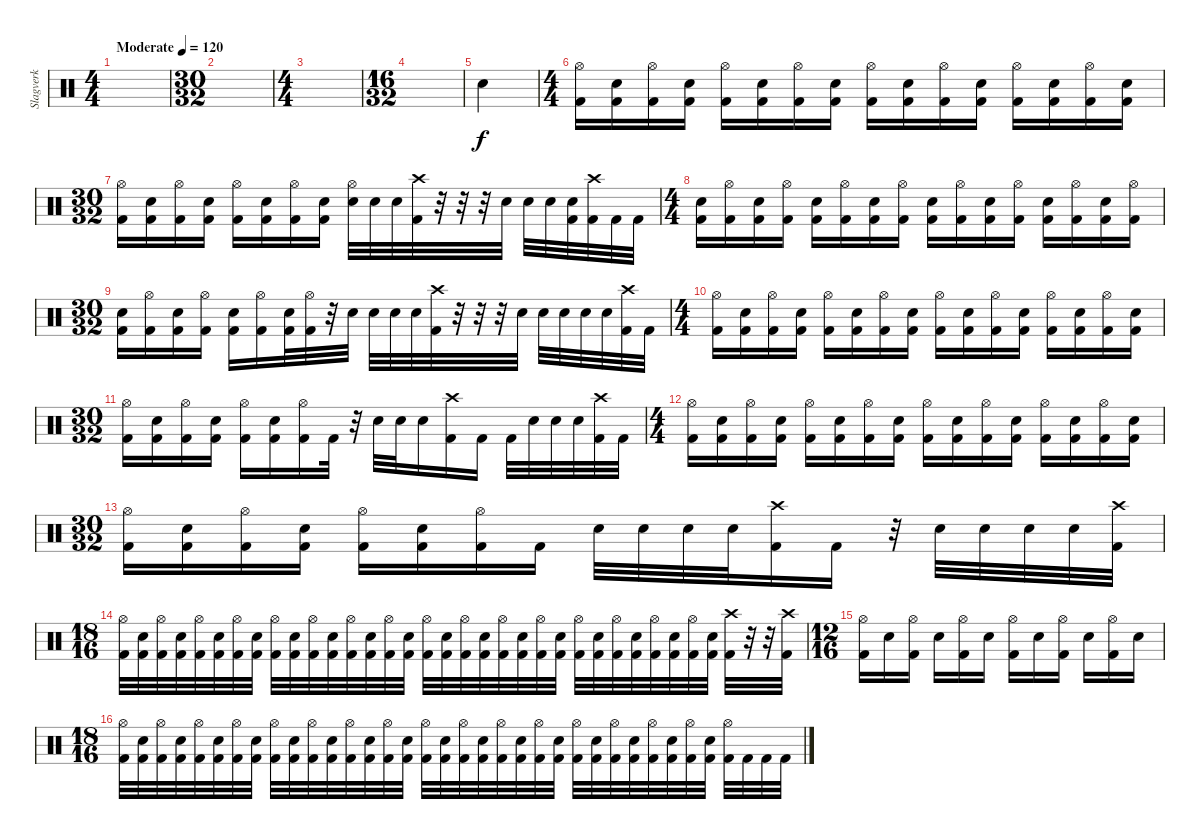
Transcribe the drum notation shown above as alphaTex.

\track ("Slagverk" "Slagverk") {instrument percussion}
\staff {score}
\articulation defaults
\ts (4 4)
\tempo (120 "Moderate")
\clef neutral
\ks c
|
\ts (30 32)
|
\ts (4 4)
|
\ts (16 32)
|
"Electric Snare (hit)".4 |
\ts (4 4)
("Hi-Hat (open)" "Kick (hit) 2").16 ("Electric Snare (hit)" "Kick (hit) 2").16 ("Hi-Hat (open)" "Kick (hit) 2").16 ("Electric Snare (hit)" "Kick (hit) 2").16 ("Hi-Hat (open)" "Kick (hit) 2").16 ("Electric Snare (hit)" "Kick (hit) 2").16 ("Hi-Hat (open)" "Kick (hit) 2").16 ("Electric Snare (hit)" "Kick (hit) 2").16 ("Hi-Hat (open)" "Kick (hit) 2").16 ("Electric Snare (hit)" "Kick (hit) 2").16 ("Hi-Hat (open)" "Kick (hit) 2").16 ("Electric Snare (hit)" "Kick (hit) 2").16 ("Hi-Hat (open)" "Kick (hit) 2").16 ("Electric Snare (hit)" "Kick (hit) 2").16 ("Hi-Hat (open)" "Kick (hit) 2").16 ("Electric Snare (hit)" "Kick (hit) 2").16 |
\ts (30 32)
("Hi-Hat (open)" "Kick (hit) 2").16 ("Electric Snare (hit)" "Kick (hit) 2").16 ("Hi-Hat (open)" "Kick (hit) 2").16 ("Electric Snare (hit)" "Kick (hit) 2").16 ("Hi-Hat (open)" "Kick (hit) 2").16 ("Electric Snare (hit)" "Kick (hit) 2").16 ("Hi-Hat (open)" "Kick (hit) 2").16 ("Electric Snare (hit)" "Kick (hit) 2").16 ("Hi-Hat (open)" "Electric Snare (hit)").32 "Electric Snare (hit)".32 "Electric Snare (hit)".32 ("Crash high (hit)" "Kick (hit) 2").32 r.32 r.32 r.32 "Electric Snare (hit)".32 "Electric Snare (hit)".32 "Electric Snare (hit)".32 ("Electric Snare (hit)" "Kick (hit) 2").32 ("Crash high (hit)" "Kick (hit) 2").32 "Kick (hit) 2".32 "Kick (hit) 2".32 |
\ts (4 4)
("Electric Snare (hit)" "Kick (hit) 2").16 ("Hi-Hat (open)" "Kick (hit) 2").16 ("Electric Snare (hit)" "Kick (hit) 2").16 ("Hi-Hat (open)" "Kick (hit) 2").16 ("Electric Snare (hit)" "Kick (hit) 2").16 ("Hi-Hat (open)" "Kick (hit) 2").16 ("Electric Snare (hit)" "Kick (hit) 2").16 ("Hi-Hat (open)" "Kick (hit) 2").16 ("Electric Snare (hit)" "Kick (hit) 2").16 ("Hi-Hat (open)" "Kick (hit) 2").16 ("Electric Snare (hit)" "Kick (hit) 2").16 ("Hi-Hat (open)" "Kick (hit) 2").16 ("Electric Snare (hit)" "Kick (hit) 2").16 ("Hi-Hat (open)" "Kick (hit) 2").16 ("Electric Snare (hit)" "Kick (hit) 2").16 ("Hi-Hat (open)" "Kick (hit) 2").16 |
\ts (30 32)
("Electric Snare (hit)" "Kick (hit) 2").16 ("Hi-Hat (open)" "Kick (hit) 2").16 ("Electric Snare (hit)" "Kick (hit) 2").16 ("Hi-Hat (open)" "Kick (hit) 2").16 ("Electric Snare (hit)" "Kick (hit) 2").16 ("Hi-Hat (open)" "Kick (hit) 2").16 ("Electric Snare (hit)" "Kick (hit) 2").32 ("Hi-Hat (open)" "Kick (hit) 2").32 r.32 "Electric Snare (hit)".32 "Electric Snare (hit)".32 "Electric Snare (hit)".32 "Electric Snare (hit)".32 ("Crash high (hit)" "Kick (hit) 2").32 r.32 r.32 r.32 "Electric Snare (hit)".32 "Electric Snare (hit)".32 "Electric Snare (hit)".32 "Electric Snare (hit)".32 "Electric Snare (hit)".32 ("Crash high (hit)" "Kick (hit) 2").32 "Kick (hit) 2".32 |
\ts (4 4)
("Hi-Hat (open)" "Kick (hit) 2").16 ("Electric Snare (hit)" "Kick (hit) 2").16 ("Hi-Hat (open)" "Kick (hit) 2").16 ("Electric Snare (hit)" "Kick (hit) 2").16 ("Hi-Hat (open)" "Kick (hit) 2").16 ("Electric Snare (hit)" "Kick (hit) 2").16 ("Hi-Hat (open)" "Kick (hit) 2").16 ("Electric Snare (hit)" "Kick (hit) 2").16 ("Hi-Hat (open)" "Kick (hit) 2").16 ("Electric Snare (hit)" "Kick (hit) 2").16 ("Hi-Hat (open)" "Kick (hit) 2").16 ("Electric Snare (hit)" "Kick (hit) 2").16 ("Hi-Hat (open)" "Kick (hit) 2").16 ("Electric Snare (hit)" "Kick (hit) 2").16 ("Hi-Hat (open)" "Kick (hit) 2").16 ("Electric Snare (hit)" "Kick (hit) 2").16 |
\ts (30 32)
("Hi-Hat (open)" "Kick (hit) 2").16 ("Electric Snare (hit)" "Kick (hit) 2").16 ("Hi-Hat (open)" "Kick (hit) 2").16 ("Electric Snare (hit)" "Kick (hit) 2").16 ("Hi-Hat (open)" "Kick (hit) 2").16 ("Electric Snare (hit)" "Kick (hit) 2").16 ("Hi-Hat (open)" "Kick (hit) 2").16 "Kick (hit) 2".32 r.32 "Electric Snare (hit)".32 "Electric Snare (hit)".32 "Electric Snare (hit)".16 ("Crash high (hit)" "Kick (hit) 2").16 "Kick (hit) 2".16 "Kick (hit) 2".32 "Electric Snare (hit)".32 "Electric Snare (hit)".32 "Electric Snare (hit)".32 ("Crash high (hit)" "Kick (hit) 2").32 "Kick (hit) 2".32 |
\ts (4 4)
("Hi-Hat (open)" "Kick (hit) 2").16 ("Electric Snare (hit)" "Kick (hit) 2").16 ("Hi-Hat (open)" "Kick (hit) 2").16 ("Electric Snare (hit)" "Kick (hit) 2").16 ("Hi-Hat (open)" "Kick (hit) 2").16 ("Electric Snare (hit)" "Kick (hit) 2").16 ("Hi-Hat (open)" "Kick (hit) 2").16 ("Electric Snare (hit)" "Kick (hit) 2").16 ("Hi-Hat (open)" "Kick (hit) 2").16 ("Electric Snare (hit)" "Kick (hit) 2").16 ("Hi-Hat (open)" "Kick (hit) 2").16 ("Electric Snare (hit)" "Kick (hit) 2").16 ("Hi-Hat (open)" "Kick (hit) 2").16 ("Electric Snare (hit)" "Kick (hit) 2").16 ("Hi-Hat (open)" "Kick (hit) 2").16 ("Electric Snare (hit)" "Kick (hit) 2").16 |
\ts (30 32)
("Hi-Hat (open)" "Kick (hit) 2").16 ("Electric Snare (hit)" "Kick (hit) 2").16 ("Hi-Hat (open)" "Kick (hit) 2").16 ("Electric Snare (hit)" "Kick (hit) 2").16 ("Hi-Hat (open)" "Kick (hit) 2").16 ("Electric Snare (hit)" "Kick (hit) 2").16 ("Hi-Hat (open)" "Kick (hit) 2").16 "Kick (hit) 2".16 "Electric Snare (hit)".32 "Electric Snare (hit)".32 "Electric Snare (hit)".32 "Electric Snare (hit)".32 ("Crash high (hit)" "Kick (hit) 2").16 "Kick (hit) 2".16 r.32 "Electric Snare (hit)".32 "Electric Snare (hit)".32 "Electric Snare (hit)".32 "Electric Snare (hit)".32 ("Crash high (hit)" "Kick (hit) 2").32 |
\ts (18 16)
("Hi-Hat (open)" "Kick (hit) 2").32 ("Electric Snare (hit)" "Kick (hit) 2").32 ("Hi-Hat (open)" "Kick (hit) 2").32 ("Electric Snare (hit)" "Kick (hit) 2").32 ("Hi-Hat (open)" "Kick (hit) 2").32 ("Electric Snare (hit)" "Kick (hit) 2").32 ("Hi-Hat (open)" "Kick (hit) 2").32 ("Electric Snare (hit)" "Kick (hit) 2").32 ("Hi-Hat (open)" "Kick (hit) 2").32 ("Electric Snare (hit)" "Kick (hit) 2").32 ("Hi-Hat (open)" "Kick (hit) 2").32 ("Electric Snare (hit)" "Kick (hit) 2").32 ("Hi-Hat (open)" "Kick (hit) 2").32 ("Electric Snare (hit)" "Kick (hit) 2").32 ("Hi-Hat (open)" "Kick (hit) 2").32 ("Electric Snare (hit)" "Kick (hit) 2").32 ("Hi-Hat (open)" "Kick (hit) 2").32 ("Electric Snare (hit)" "Kick (hit) 2").32 ("Hi-Hat (open)" "Kick (hit) 2").32 ("Electric Snare (hit)" "Kick (hit) 2").32 ("Hi-Hat (open)" "Kick (hit) 2").32 ("Electric Snare (hit)" "Kick (hit) 2").32 ("Hi-Hat (open)" "Kick (hit) 2").32 ("Electric Snare (hit)" "Kick (hit) 2").32 ("Hi-Hat (open)" "Kick (hit) 2").32 ("Electric Snare (hit)" "Kick (hit) 2").32 ("Hi-Hat (open)" "Kick (hit) 2").32 ("Electric Snare (hit)" "Kick (hit) 2").32 ("Hi-Hat (open)" "Kick (hit) 2").32 ("Electric Snare (hit)" "Kick (hit) 2").32 ("Hi-Hat (open)" "Kick (hit) 2").32 ("Electric Snare (hit)" "Kick (hit) 2").32 ("Crash high (hit)" "Kick (hit) 2").32 r.32 r.32 ("Crash high (hit)" "Kick (hit) 2").32 |
\ts (12 16)
("Hi-Hat (open)" "Kick (hit) 2").16 "Electric Snare (hit)".16 ("Hi-Hat (open)" "Kick (hit) 2").16 "Electric Snare (hit)".16 ("Hi-Hat (open)" "Kick (hit) 2").16 "Electric Snare (hit)".16 ("Hi-Hat (open)" "Kick (hit) 2").16 "Electric Snare (hit)".16 ("Hi-Hat (open)" "Kick (hit) 2").16 "Electric Snare (hit)".16 ("Hi-Hat (open)" "Kick (hit) 2").16 "Electric Snare (hit)".16 |
\ts (18 16)
("Hi-Hat (open)" "Kick (hit) 2").32 ("Electric Snare (hit)" "Kick (hit) 2").32 ("Hi-Hat (open)" "Kick (hit) 2").32 ("Electric Snare (hit)" "Kick (hit) 2").32 ("Hi-Hat (open)" "Kick (hit) 2").32 ("Electric Snare (hit)" "Kick (hit) 2").32 ("Hi-Hat (open)" "Kick (hit) 2").32 ("Electric Snare (hit)" "Kick (hit) 2").32 ("Hi-Hat (open)" "Kick (hit) 2").32 ("Electric Snare (hit)" "Kick (hit) 2").32 ("Hi-Hat (open)" "Kick (hit) 2").32 ("Electric Snare (hit)" "Kick (hit) 2").32 ("Hi-Hat (open)" "Kick (hit) 2").32 ("Electric Snare (hit)" "Kick (hit) 2").32 ("Hi-Hat (open)" "Kick (hit) 2").32 ("Electric Snare (hit)" "Kick (hit) 2").32 ("Hi-Hat (open)" "Kick (hit) 2").32 ("Electric Snare (hit)" "Kick (hit) 2").32 ("Hi-Hat (open)" "Kick (hit) 2").32 ("Electric Snare (hit)" "Kick (hit) 2").32 ("Hi-Hat (open)" "Kick (hit) 2").32 ("Electric Snare (hit)" "Kick (hit) 2").32 ("Hi-Hat (open)" "Kick (hit) 2").32 ("Electric Snare (hit)" "Kick (hit) 2").32 ("Hi-Hat (open)" "Kick (hit) 2").32 ("Electric Snare (hit)" "Kick (hit) 2").32 ("Hi-Hat (open)" "Kick (hit) 2").32 ("Electric Snare (hit)" "Kick (hit) 2").32 ("Hi-Hat (open)" "Kick (hit) 2").32 ("Electric Snare (hit)" "Kick (hit) 2").32 ("Hi-Hat (open)" "Kick (hit) 2").32 ("Electric Snare (hit)" "Kick (hit) 2").32 ("Hi-Hat (open)" "Kick (hit) 2").32 "Kick (hit) 2".32 "Kick (hit) 2".32 "Kick (hit) 2".32
